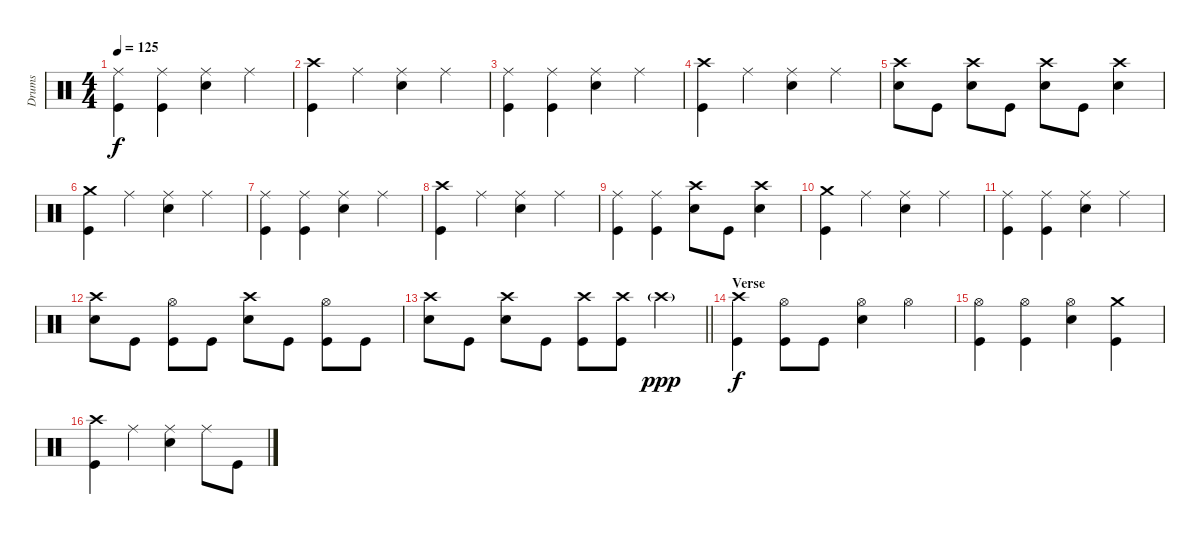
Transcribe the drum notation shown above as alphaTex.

\track ("Drums" "Drums") {instrument percussion}
\staff {score}
\articulation defaults
\ts (4 4)
\tempo 125
\clef neutral
\ks c
("Ride (middle)" "Kick (hit)").4{dy f} ("Ride (middle)" "Kick (hit)").4 ("Ride (middle)" "Snare (hit) 2").4 "Ride (middle)".4 |
("Crash high (hit)" "Kick (hit)").4 "Ride (middle)".4 ("Ride (middle)" "Snare (hit) 2").4 "Ride (middle)".4 |
("Ride (middle)" "Kick (hit)").4 ("Ride (middle)" "Kick (hit)").4 ("Ride (middle)" "Snare (hit) 2").4 "Ride (middle)".4 |
("Crash high (hit)" "Kick (hit)").4 "Ride (middle)".4 ("Ride (middle)" "Snare (hit) 2").4 "Ride (middle)".4 |
("Crash high (hit)" "Snare (hit) 2").8 "Kick (hit)".8 ("Crash high (hit)" "Snare (hit) 2").8 "Kick (hit)".8 ("Crash high (hit)" "Snare (hit) 2").8 "Kick (hit)".8 ("Crash high (hit)" "Snare (hit) 2").4 |
("Crash medium (hit)" "Kick (hit)").4 "Ride (middle)".4 ("Ride (middle)" "Snare (hit) 2").4 "Ride (middle)".4 |
("Ride (middle)" "Kick (hit)").4 ("Ride (middle)" "Kick (hit)").4 ("Ride (middle)" "Snare (hit) 2").4 "Ride (middle)".4 |
("Crash high (hit)" "Kick (hit)").4 "Ride (middle)".4 ("Ride (middle)" "Snare (hit) 2").4 "Ride (middle)".4 |
("Ride (middle)" "Kick (hit)").4 ("Ride (middle)" "Kick (hit)").4 ("Crash high (hit)" "Snare (hit) 2").8 "Kick (hit)".8 ("Crash high (hit)" "Snare (hit) 2").4 |
("Crash medium (hit)" "Kick (hit)").4 "Ride (middle)".4 ("Ride (middle)" "Snare (hit) 2").4 "Ride (middle)".4 |
("Ride (middle)" "Kick (hit)").4 ("Ride (middle)" "Kick (hit)").4 ("Ride (middle)" "Snare (hit) 2").4 "Ride (middle)".4 |
("Crash high (hit)" "Snare (hit) 2").8 "Kick (hit)".8 ("Hi-Hat (open)" "Kick (hit)").8 "Kick (hit)".8 ("Crash high (hit)" "Snare (hit) 2").8 "Kick (hit)".8 ("Hi-Hat (open)" "Kick (hit)").8 "Kick (hit)".8 |
\barLineRight lightlight
("Crash high (hit)" "Snare (hit) 2").8 "Kick (hit)".8 ("Crash high (hit)" "Snare (hit) 2").8 "Kick (hit)".8 ("Crash high (hit)" "Kick (hit)").8 ("Crash high (hit)" "Kick (hit)").8 "Crash high (hit)"{g}.4{dy ppp} |
\section ("" "Verse")
("Crash high (hit)" "Kick (hit)").4{dy f} ("Hi-Hat (open)" "Kick (hit)").8 "Kick (hit)".8 ("Hi-Hat (open)" "Snare (hit) 2").4 "Hi-Hat (open)".4 |
("Hi-Hat (open)" "Kick (hit)").4 ("Hi-Hat (open)" "Kick (hit)").4 ("Hi-Hat (open)" "Snare (hit) 2").4 ("Crash medium (hit)" "Kick (hit)").4 |
("Crash high (hit)" "Kick (hit)").4 "Ride (middle)".4 ("Ride (middle)" "Snare (hit) 2").4 "Ride (middle)".8 "Kick (hit)".8
